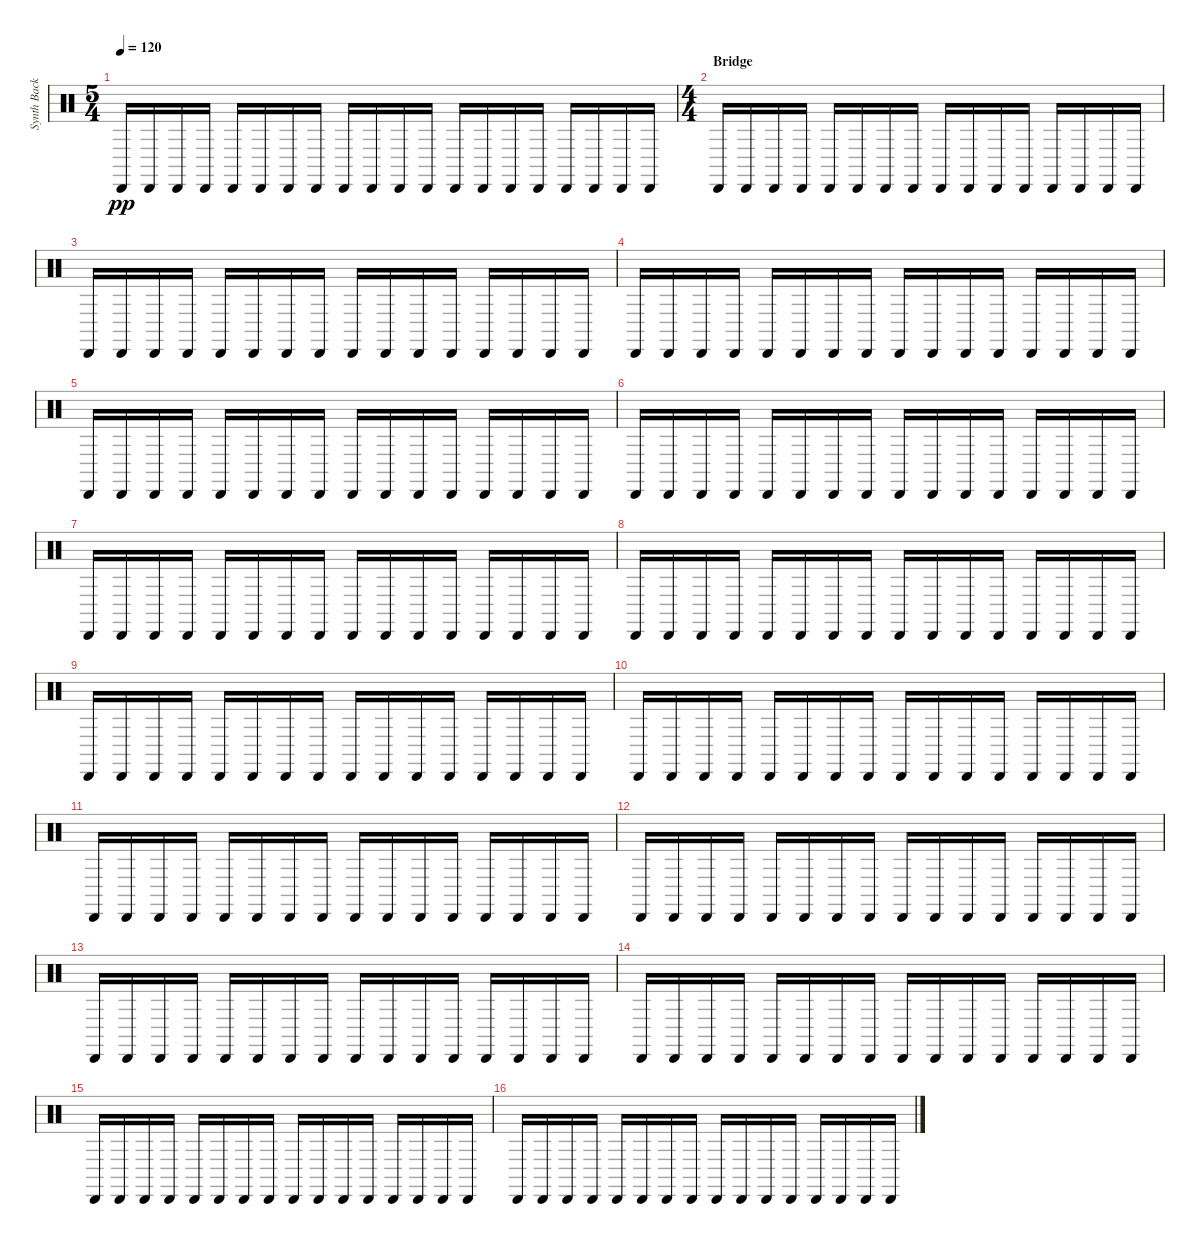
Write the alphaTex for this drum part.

\track ("Synth Background Rhythm" "Synth Back") {instrument percussion}
\staff {score}
\articulation defaults
\ts (5 4)
\tempo 120
\clef neutral
\ks c "Cabasa (hit)".16{dy pp} "Cabasa (hit)".16 "Cabasa (hit)".16 "Cabasa (hit)".16 "Cabasa (hit)".16 "Cabasa (hit)".16 "Cabasa (hit)".16 "Cabasa (hit)".16 "Cabasa (hit)".16 "Cabasa (hit)".16 "Cabasa (hit)".16 "Cabasa (hit)".16 "Cabasa (hit)".16 "Cabasa (hit)".16 "Cabasa (hit)".16 "Cabasa (hit)".16 "Cabasa (hit)".16 "Cabasa (hit)".16 "Cabasa (hit)".16 "Cabasa (hit)".16
|
\ts (4 4)
\section ("" "Bridge")
"Cabasa (hit)".16 "Cabasa (hit)".16 "Cabasa (hit)".16 "Cabasa (hit)".16 "Cabasa (hit)".16 "Cabasa (hit)".16 "Cabasa (hit)".16 "Cabasa (hit)".16 "Cabasa (hit)".16 "Cabasa (hit)".16 "Cabasa (hit)".16 "Cabasa (hit)".16 "Cabasa (hit)".16 "Cabasa (hit)".16 "Cabasa (hit)".16 "Cabasa (hit)".16 |
"Cabasa (hit)".16 "Cabasa (hit)".16 "Cabasa (hit)".16 "Cabasa (hit)".16 "Cabasa (hit)".16 "Cabasa (hit)".16 "Cabasa (hit)".16 "Cabasa (hit)".16 "Cabasa (hit)".16 "Cabasa (hit)".16 "Cabasa (hit)".16 "Cabasa (hit)".16 "Cabasa (hit)".16 "Cabasa (hit)".16 "Cabasa (hit)".16 "Cabasa (hit)".16 |
"Cabasa (hit)".16 "Cabasa (hit)".16 "Cabasa (hit)".16 "Cabasa (hit)".16 "Cabasa (hit)".16 "Cabasa (hit)".16 "Cabasa (hit)".16 "Cabasa (hit)".16 "Cabasa (hit)".16 "Cabasa (hit)".16 "Cabasa (hit)".16 "Cabasa (hit)".16 "Cabasa (hit)".16 "Cabasa (hit)".16 "Cabasa (hit)".16 "Cabasa (hit)".16 |
"Cabasa (hit)".16 "Cabasa (hit)".16 "Cabasa (hit)".16 "Cabasa (hit)".16 "Cabasa (hit)".16 "Cabasa (hit)".16 "Cabasa (hit)".16 "Cabasa (hit)".16 "Cabasa (hit)".16 "Cabasa (hit)".16 "Cabasa (hit)".16 "Cabasa (hit)".16 "Cabasa (hit)".16 "Cabasa (hit)".16 "Cabasa (hit)".16 "Cabasa (hit)".16 |
"Cabasa (hit)".16 "Cabasa (hit)".16 "Cabasa (hit)".16 "Cabasa (hit)".16 "Cabasa (hit)".16 "Cabasa (hit)".16 "Cabasa (hit)".16 "Cabasa (hit)".16 "Cabasa (hit)".16 "Cabasa (hit)".16 "Cabasa (hit)".16 "Cabasa (hit)".16 "Cabasa (hit)".16 "Cabasa (hit)".16 "Cabasa (hit)".16 "Cabasa (hit)".16 |
"Cabasa (hit)".16 "Cabasa (hit)".16 "Cabasa (hit)".16 "Cabasa (hit)".16 "Cabasa (hit)".16 "Cabasa (hit)".16 "Cabasa (hit)".16 "Cabasa (hit)".16 "Cabasa (hit)".16 "Cabasa (hit)".16 "Cabasa (hit)".16 "Cabasa (hit)".16 "Cabasa (hit)".16 "Cabasa (hit)".16 "Cabasa (hit)".16 "Cabasa (hit)".16 |
"Cabasa (hit)".16 "Cabasa (hit)".16 "Cabasa (hit)".16 "Cabasa (hit)".16 "Cabasa (hit)".16 "Cabasa (hit)".16 "Cabasa (hit)".16 "Cabasa (hit)".16 "Cabasa (hit)".16 "Cabasa (hit)".16 "Cabasa (hit)".16 "Cabasa (hit)".16 "Cabasa (hit)".16 "Cabasa (hit)".16 "Cabasa (hit)".16 "Cabasa (hit)".16 |
"Cabasa (hit)".16 "Cabasa (hit)".16 "Cabasa (hit)".16 "Cabasa (hit)".16 "Cabasa (hit)".16 "Cabasa (hit)".16 "Cabasa (hit)".16 "Cabasa (hit)".16 "Cabasa (hit)".16 "Cabasa (hit)".16 "Cabasa (hit)".16 "Cabasa (hit)".16 "Cabasa (hit)".16 "Cabasa (hit)".16 "Cabasa (hit)".16 "Cabasa (hit)".16 |
"Cabasa (hit)".16 "Cabasa (hit)".16 "Cabasa (hit)".16 "Cabasa (hit)".16 "Cabasa (hit)".16 "Cabasa (hit)".16 "Cabasa (hit)".16 "Cabasa (hit)".16 "Cabasa (hit)".16 "Cabasa (hit)".16 "Cabasa (hit)".16 "Cabasa (hit)".16 "Cabasa (hit)".16 "Cabasa (hit)".16 "Cabasa (hit)".16 "Cabasa (hit)".16 |
"Cabasa (hit)".16 "Cabasa (hit)".16 "Cabasa (hit)".16 "Cabasa (hit)".16 "Cabasa (hit)".16 "Cabasa (hit)".16 "Cabasa (hit)".16 "Cabasa (hit)".16 "Cabasa (hit)".16 "Cabasa (hit)".16 "Cabasa (hit)".16 "Cabasa (hit)".16 "Cabasa (hit)".16 "Cabasa (hit)".16 "Cabasa (hit)".16 "Cabasa (hit)".16 |
"Cabasa (hit)".16 "Cabasa (hit)".16 "Cabasa (hit)".16 "Cabasa (hit)".16 "Cabasa (hit)".16 "Cabasa (hit)".16 "Cabasa (hit)".16 "Cabasa (hit)".16 "Cabasa (hit)".16 "Cabasa (hit)".16 "Cabasa (hit)".16 "Cabasa (hit)".16 "Cabasa (hit)".16 "Cabasa (hit)".16 "Cabasa (hit)".16 "Cabasa (hit)".16 |
"Cabasa (hit)".16 "Cabasa (hit)".16 "Cabasa (hit)".16 "Cabasa (hit)".16 "Cabasa (hit)".16 "Cabasa (hit)".16 "Cabasa (hit)".16 "Cabasa (hit)".16 "Cabasa (hit)".16 "Cabasa (hit)".16 "Cabasa (hit)".16 "Cabasa (hit)".16 "Cabasa (hit)".16 "Cabasa (hit)".16 "Cabasa (hit)".16 "Cabasa (hit)".16 |
"Cabasa (hit)".16 "Cabasa (hit)".16 "Cabasa (hit)".16 "Cabasa (hit)".16 "Cabasa (hit)".16 "Cabasa (hit)".16 "Cabasa (hit)".16 "Cabasa (hit)".16 "Cabasa (hit)".16 "Cabasa (hit)".16 "Cabasa (hit)".16 "Cabasa (hit)".16 "Cabasa (hit)".16 "Cabasa (hit)".16 "Cabasa (hit)".16 "Cabasa (hit)".16 |
"Cabasa (hit)".16 "Cabasa (hit)".16 "Cabasa (hit)".16 "Cabasa (hit)".16 "Cabasa (hit)".16 "Cabasa (hit)".16 "Cabasa (hit)".16 "Cabasa (hit)".16 "Cabasa (hit)".16 "Cabasa (hit)".16 "Cabasa (hit)".16 "Cabasa (hit)".16 "Cabasa (hit)".16 "Cabasa (hit)".16 "Cabasa (hit)".16 "Cabasa (hit)".16 |
"Cabasa (hit)".16 "Cabasa (hit)".16 "Cabasa (hit)".16 "Cabasa (hit)".16 "Cabasa (hit)".16 "Cabasa (hit)".16 "Cabasa (hit)".16 "Cabasa (hit)".16 "Cabasa (hit)".16 "Cabasa (hit)".16 "Cabasa (hit)".16 "Cabasa (hit)".16 "Cabasa (hit)".16 "Cabasa (hit)".16 "Cabasa (hit)".16 "Cabasa (hit)".16
